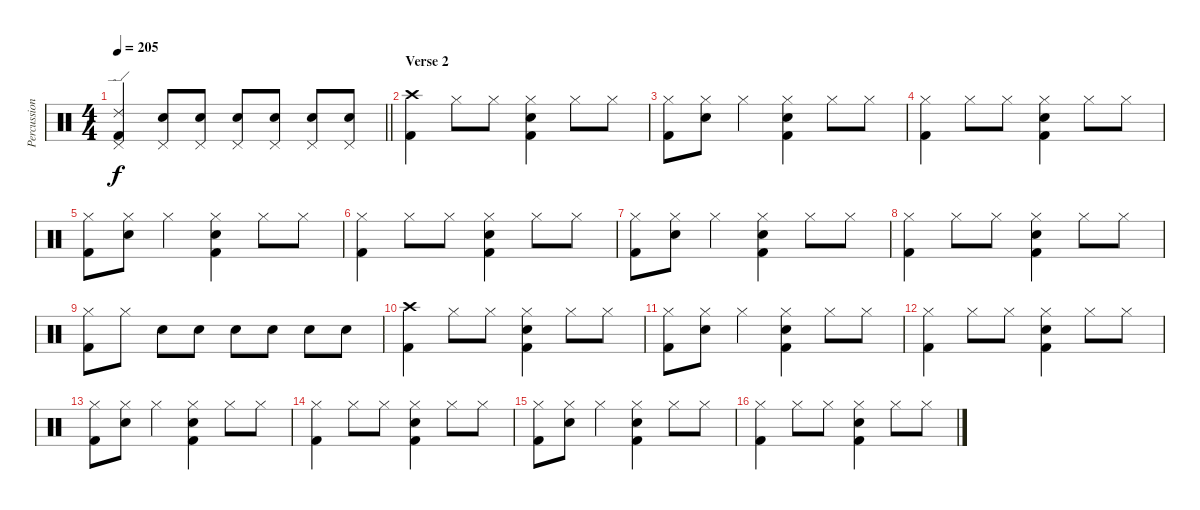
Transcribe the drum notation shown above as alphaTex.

\track ("Percussion" "Percussion") {instrument percussion}
\staff {score}
\articulation defaults
\ts (4 4)
\tempo 205
\clef neutral
\barLineRight lightlight
\ks c
("Ride (edge) 2" "Pedal Hi-Hat (hit)" "Kick (hit) 2").4{dy f} ("Electric Snare (hit)" "Pedal Hi-Hat (hit)").8 ("Electric Snare (hit)" "Pedal Hi-Hat (hit)").8 ("Electric Snare (hit)" "Pedal Hi-Hat (hit)").8 ("Electric Snare (hit)" "Pedal Hi-Hat (hit)").8 ("Electric Snare (hit)" "Pedal Hi-Hat (hit)").8 ("Electric Snare (hit)" "Pedal Hi-Hat (hit)").8 |
\section ("" "Verse 2")
("Crash high (hit)" "Kick (hit) 2").4 "Hi-Hat (closed)".8 "Hi-Hat (closed)".8 ("Electric Snare (hit)" "Hi-Hat (closed)" "Kick (hit) 2").4 "Hi-Hat (closed)".8 "Hi-Hat (closed)".8 |
("Hi-Hat (closed)" "Kick (hit) 2").8 ("Electric Snare (hit)" "Hi-Hat (closed)").8 "Hi-Hat (closed)".4 ("Electric Snare (hit)" "Hi-Hat (closed)" "Kick (hit) 2").4 "Hi-Hat (closed)".8 "Hi-Hat (closed)".8 |
("Hi-Hat (closed)" "Kick (hit) 2").4 "Hi-Hat (closed)".8 "Hi-Hat (closed)".8 ("Electric Snare (hit)" "Hi-Hat (closed)" "Kick (hit) 2").4 "Hi-Hat (closed)".8 "Hi-Hat (closed)".8 |
("Hi-Hat (closed)" "Kick (hit) 2").8 ("Electric Snare (hit)" "Hi-Hat (closed)").8 "Hi-Hat (closed)".4 ("Electric Snare (hit)" "Hi-Hat (closed)" "Kick (hit) 2").4 "Hi-Hat (closed)".8 "Hi-Hat (closed)".8 |
("Hi-Hat (closed)" "Kick (hit) 2").4 "Hi-Hat (closed)".8 "Hi-Hat (closed)".8 ("Electric Snare (hit)" "Hi-Hat (closed)" "Kick (hit) 2").4 "Hi-Hat (closed)".8 "Hi-Hat (closed)".8 |
("Hi-Hat (closed)" "Kick (hit) 2").8 ("Electric Snare (hit)" "Hi-Hat (closed)").8 "Hi-Hat (closed)".4 ("Electric Snare (hit)" "Hi-Hat (closed)" "Kick (hit) 2").4 "Hi-Hat (closed)".8 "Hi-Hat (closed)".8 |
("Hi-Hat (closed)" "Kick (hit) 2").4 "Hi-Hat (closed)".8 "Hi-Hat (closed)".8 ("Electric Snare (hit)" "Hi-Hat (closed)" "Kick (hit) 2").4 "Hi-Hat (closed)".8 "Hi-Hat (closed)".8 |
("Hi-Hat (closed)" "Kick (hit) 2").8 "Hi-Hat (closed)".8 "Electric Snare (hit)".8 "Electric Snare (hit)".8 "Electric Snare (hit)".8 "Electric Snare (hit)".8 "Electric Snare (hit)".8 "Electric Snare (hit)".8 |
("Crash high (hit)" "Kick (hit) 2").4 "Hi-Hat (closed)".8 "Hi-Hat (closed)".8 ("Electric Snare (hit)" "Hi-Hat (closed)" "Kick (hit) 2").4 "Hi-Hat (closed)".8 "Hi-Hat (closed)".8 |
("Hi-Hat (closed)" "Kick (hit) 2").8 ("Electric Snare (hit)" "Hi-Hat (closed)").8 "Hi-Hat (closed)".4 ("Electric Snare (hit)" "Hi-Hat (closed)" "Kick (hit) 2").4 "Hi-Hat (closed)".8 "Hi-Hat (closed)".8 |
("Hi-Hat (closed)" "Kick (hit) 2").4 "Hi-Hat (closed)".8 "Hi-Hat (closed)".8 ("Electric Snare (hit)" "Hi-Hat (closed)" "Kick (hit) 2").4 "Hi-Hat (closed)".8 "Hi-Hat (closed)".8 |
("Hi-Hat (closed)" "Kick (hit) 2").8 ("Electric Snare (hit)" "Hi-Hat (closed)").8 "Hi-Hat (closed)".4 ("Electric Snare (hit)" "Hi-Hat (closed)" "Kick (hit) 2").4 "Hi-Hat (closed)".8 "Hi-Hat (closed)".8 |
("Hi-Hat (closed)" "Kick (hit) 2").4 "Hi-Hat (closed)".8 "Hi-Hat (closed)".8 ("Electric Snare (hit)" "Hi-Hat (closed)" "Kick (hit) 2").4 "Hi-Hat (closed)".8 "Hi-Hat (closed)".8 |
("Hi-Hat (closed)" "Kick (hit) 2").8 ("Electric Snare (hit)" "Hi-Hat (closed)").8 "Hi-Hat (closed)".4 ("Electric Snare (hit)" "Hi-Hat (closed)" "Kick (hit) 2").4 "Hi-Hat (closed)".8 "Hi-Hat (closed)".8 |
("Hi-Hat (closed)" "Kick (hit) 2").4 "Hi-Hat (closed)".8 "Hi-Hat (closed)".8 ("Electric Snare (hit)" "Hi-Hat (closed)" "Kick (hit) 2").4 "Hi-Hat (closed)".8 "Hi-Hat (closed)".8
